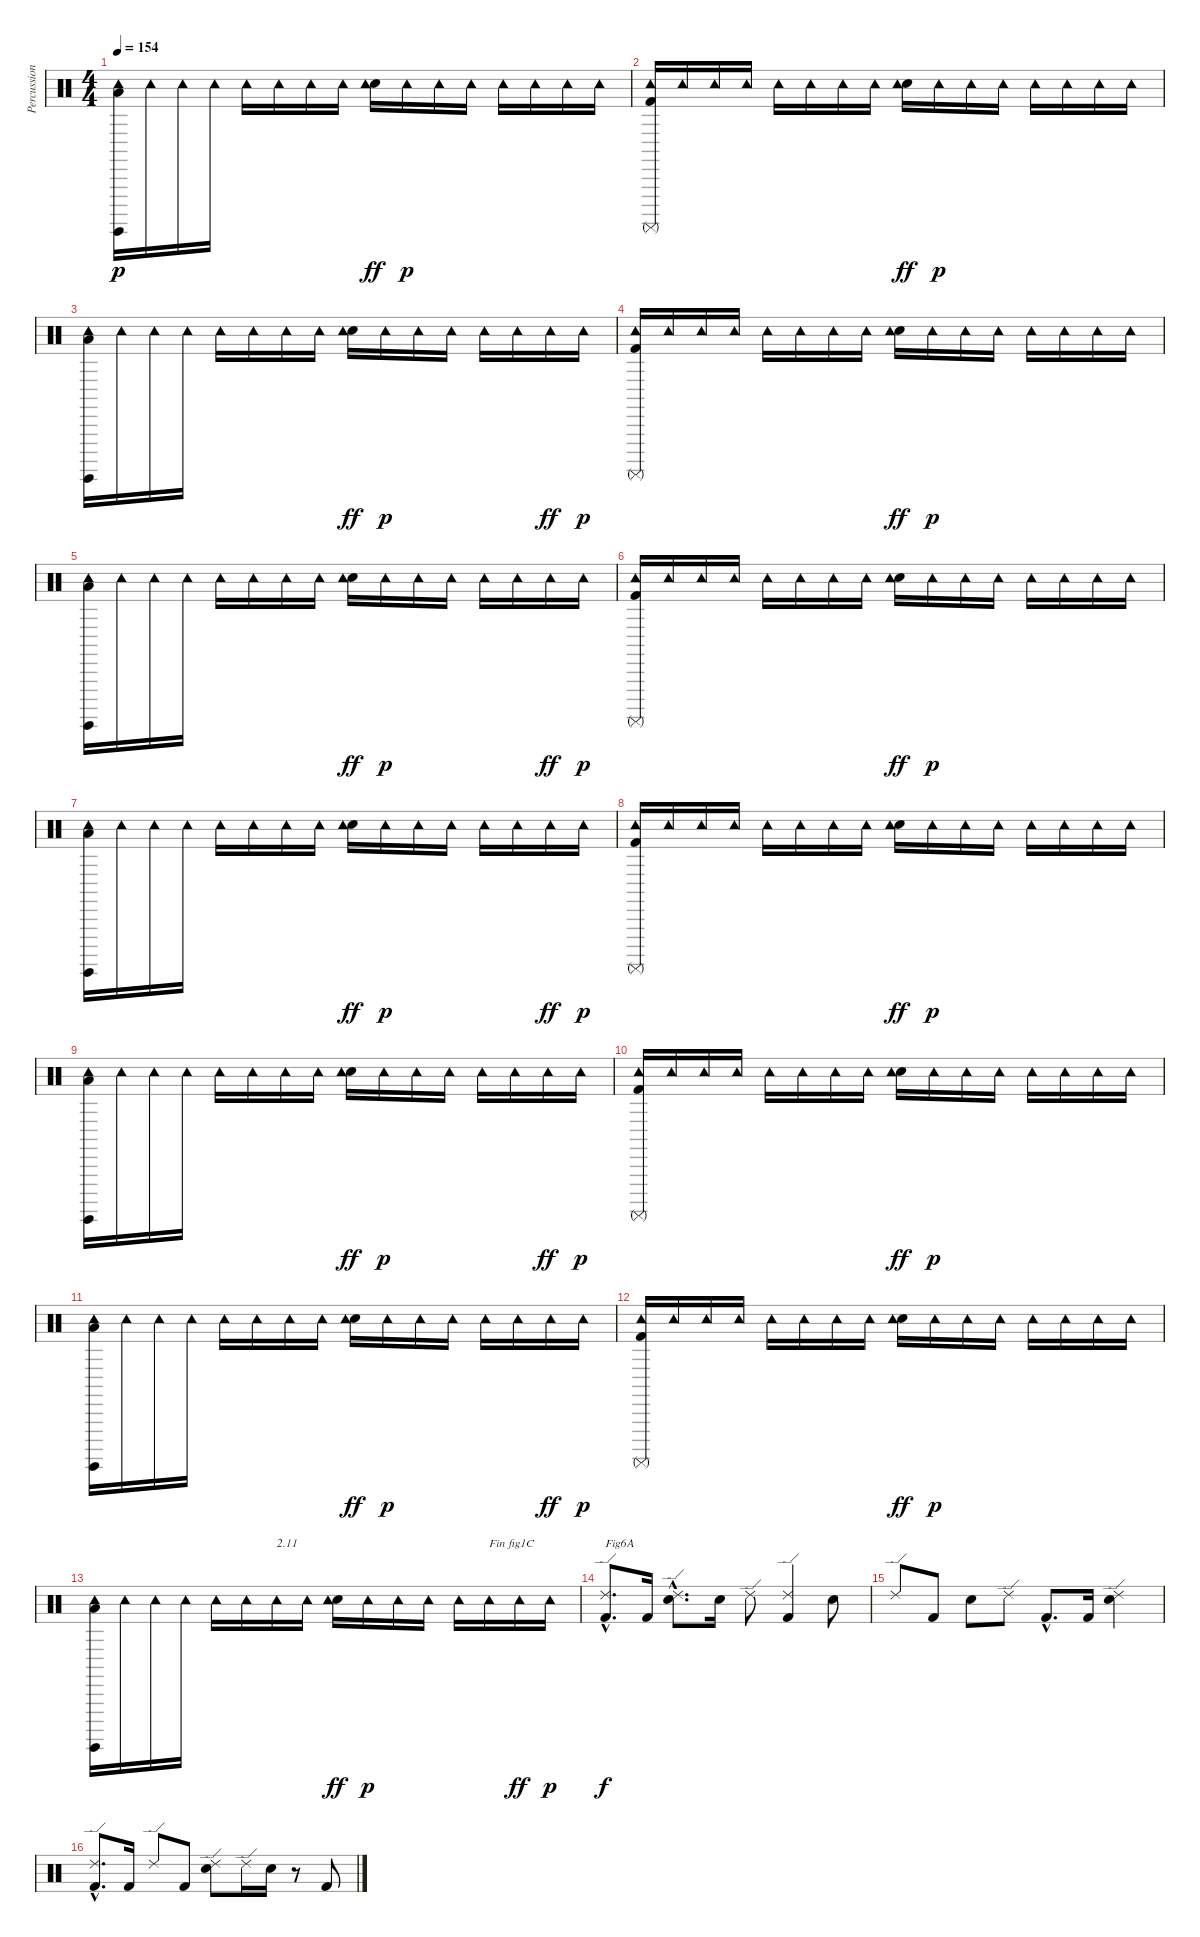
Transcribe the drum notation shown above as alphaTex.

\track ("Percussions" "Percussion") {instrument percussion}
\staff {score}
\articulation defaults
\ts (4 4)
\tempo 154
\clef neutral
\ks c
("Low Tom (hit)" "Surdo (hit)" "Tambourine (hit)").16{dy p} "Tambourine (hit)".16 "Tambourine (hit)".16 "Tambourine (hit)".16 "Tambourine (hit)".16 "Tambourine (hit)".16 "Tambourine (hit)".16 "Tambourine (hit)".16 ("Electric Snare (hit)" "Tambourine (hit)").16{dy ff} "Tambourine (hit)".16{dy p} "Tambourine (hit)".16 "Tambourine (hit)".16 "Tambourine (hit)".16 "Tambourine (hit)".16 "Tambourine (hit)".16 "Tambourine (hit)".16 |
("Kick (hit) 2" "Surdo (mute)" "Tambourine (hit)").16 "Tambourine (hit)".16 "Tambourine (hit)".16 "Tambourine (hit)".16 "Tambourine (hit)".16 "Tambourine (hit)".16 "Tambourine (hit)".16 "Tambourine (hit)".16 ("Electric Snare (hit)" "Tambourine (hit)").16{dy ff} "Tambourine (hit)".16{dy p} "Tambourine (hit)".16 "Tambourine (hit)".16 "Tambourine (hit)".16 "Tambourine (hit)".16 "Tambourine (hit)".16 "Tambourine (hit)".16 |
("Low Tom (hit)" "Surdo (hit)" "Tambourine (hit)").16 "Tambourine (hit)".16 "Tambourine (hit)".16 "Tambourine (hit)".16 "Tambourine (hit)".16 "Tambourine (hit)".16 "Tambourine (hit)".16 "Tambourine (hit)".16 ("Electric Snare (hit)" "Tambourine (hit)").16{dy ff} "Tambourine (hit)".16{dy p} "Tambourine (hit)".16 "Tambourine (hit)".16 "Tambourine (hit)".16 "Tambourine (hit)".16 "Tambourine (hit)".16{dy ff} "Tambourine (hit)".16{dy p} |
("Kick (hit) 2" "Surdo (mute)" "Tambourine (hit)").16 "Tambourine (hit)".16 "Tambourine (hit)".16 "Tambourine (hit)".16 "Tambourine (hit)".16 "Tambourine (hit)".16 "Tambourine (hit)".16 "Tambourine (hit)".16 ("Electric Snare (hit)" "Tambourine (hit)").16{dy ff} "Tambourine (hit)".16{dy p} "Tambourine (hit)".16 "Tambourine (hit)".16 "Tambourine (hit)".16 "Tambourine (hit)".16 "Tambourine (hit)".16 "Tambourine (hit)".16 |
("Low Tom (hit)" "Surdo (hit)" "Tambourine (hit)").16 "Tambourine (hit)".16 "Tambourine (hit)".16 "Tambourine (hit)".16 "Tambourine (hit)".16 "Tambourine (hit)".16 "Tambourine (hit)".16 "Tambourine (hit)".16 ("Electric Snare (hit)" "Tambourine (hit)").16{dy ff} "Tambourine (hit)".16{dy p} "Tambourine (hit)".16 "Tambourine (hit)".16 "Tambourine (hit)".16 "Tambourine (hit)".16 "Tambourine (hit)".16{dy ff} "Tambourine (hit)".16{dy p} |
("Kick (hit) 2" "Surdo (mute)" "Tambourine (hit)").16 "Tambourine (hit)".16 "Tambourine (hit)".16 "Tambourine (hit)".16 "Tambourine (hit)".16 "Tambourine (hit)".16 "Tambourine (hit)".16 "Tambourine (hit)".16 ("Electric Snare (hit)" "Tambourine (hit)").16{dy ff} "Tambourine (hit)".16{dy p} "Tambourine (hit)".16 "Tambourine (hit)".16 "Tambourine (hit)".16 "Tambourine (hit)".16 "Tambourine (hit)".16 "Tambourine (hit)".16 |
("Low Tom (hit)" "Surdo (hit)" "Tambourine (hit)").16 "Tambourine (hit)".16 "Tambourine (hit)".16 "Tambourine (hit)".16 "Tambourine (hit)".16 "Tambourine (hit)".16 "Tambourine (hit)".16 "Tambourine (hit)".16 ("Electric Snare (hit)" "Tambourine (hit)").16{dy ff} "Tambourine (hit)".16{dy p} "Tambourine (hit)".16 "Tambourine (hit)".16 "Tambourine (hit)".16 "Tambourine (hit)".16 "Tambourine (hit)".16{dy ff} "Tambourine (hit)".16{dy p} |
("Kick (hit) 2" "Surdo (mute)" "Tambourine (hit)").16 "Tambourine (hit)".16 "Tambourine (hit)".16 "Tambourine (hit)".16 "Tambourine (hit)".16 "Tambourine (hit)".16 "Tambourine (hit)".16 "Tambourine (hit)".16 ("Electric Snare (hit)" "Tambourine (hit)").16{dy ff} "Tambourine (hit)".16{dy p} "Tambourine (hit)".16 "Tambourine (hit)".16 "Tambourine (hit)".16 "Tambourine (hit)".16 "Tambourine (hit)".16 "Tambourine (hit)".16 |
("Low Tom (hit)" "Surdo (hit)" "Tambourine (hit)").16 "Tambourine (hit)".16 "Tambourine (hit)".16 "Tambourine (hit)".16 "Tambourine (hit)".16 "Tambourine (hit)".16 "Tambourine (hit)".16 "Tambourine (hit)".16 ("Electric Snare (hit)" "Tambourine (hit)").16{dy ff} "Tambourine (hit)".16{dy p} "Tambourine (hit)".16 "Tambourine (hit)".16 "Tambourine (hit)".16 "Tambourine (hit)".16 "Tambourine (hit)".16{dy ff} "Tambourine (hit)".16{dy p} |
("Kick (hit) 2" "Surdo (mute)" "Tambourine (hit)").16 "Tambourine (hit)".16 "Tambourine (hit)".16 "Tambourine (hit)".16 "Tambourine (hit)".16 "Tambourine (hit)".16 "Tambourine (hit)".16 "Tambourine (hit)".16 ("Electric Snare (hit)" "Tambourine (hit)").16{dy ff} "Tambourine (hit)".16{dy p} "Tambourine (hit)".16 "Tambourine (hit)".16 "Tambourine (hit)".16 "Tambourine (hit)".16 "Tambourine (hit)".16 "Tambourine (hit)".16 |
("Low Tom (hit)" "Surdo (hit)" "Tambourine (hit)").16 "Tambourine (hit)".16 "Tambourine (hit)".16 "Tambourine (hit)".16 "Tambourine (hit)".16 "Tambourine (hit)".16 "Tambourine (hit)".16 "Tambourine (hit)".16 ("Electric Snare (hit)" "Tambourine (hit)").16{dy ff} "Tambourine (hit)".16{dy p} "Tambourine (hit)".16 "Tambourine (hit)".16 "Tambourine (hit)".16 "Tambourine (hit)".16 "Tambourine (hit)".16{dy ff} "Tambourine (hit)".16{dy p} |
("Kick (hit) 2" "Surdo (mute)" "Tambourine (hit)").16 "Tambourine (hit)".16 "Tambourine (hit)".16 "Tambourine (hit)".16 "Tambourine (hit)".16 "Tambourine (hit)".16 "Tambourine (hit)".16 "Tambourine (hit)".16 ("Electric Snare (hit)" "Tambourine (hit)").16{dy ff} "Tambourine (hit)".16{dy p} "Tambourine (hit)".16 "Tambourine (hit)".16 "Tambourine (hit)".16 "Tambourine (hit)".16 "Tambourine (hit)".16 "Tambourine (hit)".16 |
("Low Tom (hit)" "Surdo (hit)" "Tambourine (hit)").16 "Tambourine (hit)".16 "Tambourine (hit)".16 "Tambourine (hit)".16 "Tambourine (hit)".16 "Tambourine (hit)".16 "Tambourine (hit)".16{txt "2.11"} "Tambourine (hit)".16 ("Electric Snare (hit)" "Tambourine (hit)").16{dy ff} "Tambourine (hit)".16{dy p} "Tambourine (hit)".16 "Tambourine (hit)".16 "Tambourine (hit)".16 "Tambourine (hit)".16{txt "Fin fig1C"} "Tambourine (hit)".16{dy ff} "Tambourine (hit)".16{dy p} |
("Kick (hit) 2"{hac} "Ride (edge) 2"{hac}).8{d txt "Fig6A" dy f} "Kick (hit) 2".16 ("Electric Snare (hit)"{hac} "Ride (edge) 2"{hac}).8{d} "Electric Snare (hit)".16 "Ride (edge) 2".8 ("Kick (hit) 2" "Ride (edge) 2").4 "Electric Snare (hit)".8 |
"Ride (edge) 2".8 "Kick (hit) 2".8 "Electric Snare (hit)".8 "Ride (edge) 2".8 "Kick (hit) 2"{hac}.8{d} "Kick (hit) 2".16 ("Electric Snare (hit)" "Ride (edge) 2").4 |
("Kick (hit) 2"{hac} "Ride (edge) 2"{hac}).8{d} "Kick (hit) 2".16 "Ride (edge) 2".8 "Kick (hit) 2".8 ("Electric Snare (hit)" "Ride (edge) 2").8 "Ride (edge) 2".16 "Electric Snare (hit)".16 r.8 "Kick (hit) 2".8
